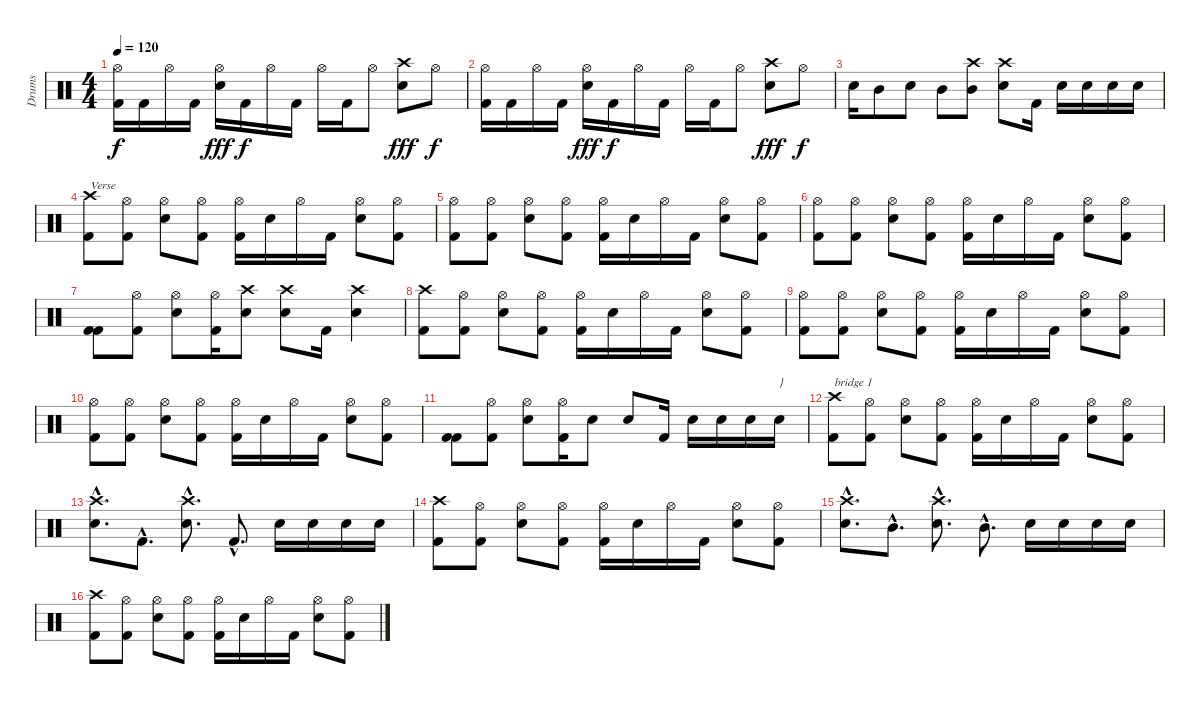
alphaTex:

\track ("Drums" "Drums") {instrument percussion}
\staff {score}
\articulation defaults
\ts (4 4)
\tempo 120
\clef neutral
\ks c
("Hi-Hat (open)" "Kick (hit) 2").16{dy f} "Kick (hit) 2".16 "Hi-Hat (open)".16 "Kick (hit) 2".16 ("Hi-Hat (open)" "Snare (hit) 2").16{dy fff} "Kick (hit) 2".16{dy f} "Hi-Hat (open)".16 "Kick (hit) 2".16 "Hi-Hat (open)".16 "Kick (hit) 2".16 "Hi-Hat (open)".8 ("Snare (hit) 2" "Crash high (hit)").8{dy fff} "Hi-Hat (open)".8{dy f} |
("Hi-Hat (open)" "Kick (hit) 2").16 "Kick (hit) 2".16 "Hi-Hat (open)".16 "Kick (hit) 2".16 ("Hi-Hat (open)" "Snare (hit) 2").16{dy fff} "Kick (hit) 2".16{dy f} "Hi-Hat (open)".16 "Kick (hit) 2".16 "Hi-Hat (open)".16 "Kick (hit) 2".16 "Hi-Hat (open)".8 ("Snare (hit) 2" "Crash high (hit)").8{dy fff} "Hi-Hat (open)".8{dy f} |
"Snare (hit) 2".16 "Mid Tom (hit)".8 "Snare (hit) 2".8 "Mid Tom (hit)".8 ("Crash high (hit)" "Mid Tom (hit)").8 ("Crash high (hit)" "Snare (hit) 2").8 "Kick (hit) 2".16 "Snare (hit) 2".16 "Snare (hit) 2".16 "Snare (hit) 2".16 "Snare (hit) 2".16 |
("Kick (hit) 2" "Crash high (hit)").8{txt "Verse"} ("Hi-Hat (open)" "Kick (hit) 2").8 ("Hi-Hat (open)" "Snare (hit) 2").8 ("Hi-Hat (open)" "Kick (hit) 2").8 ("Hi-Hat (open)" "Kick (hit) 2").16 "Snare (hit) 2".16 "Hi-Hat (open)".16 "Kick (hit) 2".16 ("Hi-Hat (open)" "Snare (hit) 2").8 ("Hi-Hat (open)" "Kick (hit) 2").8 |
("Hi-Hat (open)" "Kick (hit) 2").8 ("Hi-Hat (open)" "Kick (hit) 2").8 ("Hi-Hat (open)" "Snare (hit) 2").8 ("Hi-Hat (open)" "Kick (hit) 2").8 ("Hi-Hat (open)" "Kick (hit) 2").16 "Snare (hit) 2".16 "Hi-Hat (open)".16 "Kick (hit) 2".16 ("Hi-Hat (open)" "Snare (hit) 2").8 ("Hi-Hat (open)" "Kick (hit) 2").8 |
("Hi-Hat (open)" "Kick (hit) 2").8 ("Hi-Hat (open)" "Kick (hit) 2").8 ("Hi-Hat (open)" "Snare (hit) 2").8 ("Hi-Hat (open)" "Kick (hit) 2").8 ("Hi-Hat (open)" "Kick (hit) 2").16 "Snare (hit) 2".16 "Hi-Hat (open)".16 "Kick (hit) 2".16 ("Hi-Hat (open)" "Snare (hit) 2").8 ("Hi-Hat (open)" "Kick (hit) 2").8 |
("Kick (hit) 2" "Kick (hit) 2").8 ("Hi-Hat (open)" "Kick (hit) 2").8 ("Hi-Hat (open)" "Snare (hit) 2").8 ("Hi-Hat (open)" "Kick (hit) 2").16 ("Snare (hit) 2" "Crash high (hit)").8 ("Snare (hit) 2" "Crash high (hit)").8 "Kick (hit) 2".16 ("Snare (hit) 2" "Crash high (hit)").4 |
("Kick (hit) 2" "Crash high (hit)").8 ("Hi-Hat (open)" "Kick (hit) 2").8 ("Hi-Hat (open)" "Snare (hit) 2").8 ("Hi-Hat (open)" "Kick (hit) 2").8 ("Hi-Hat (open)" "Kick (hit) 2").16 "Snare (hit) 2".16 "Hi-Hat (open)".16 "Kick (hit) 2".16 ("Hi-Hat (open)" "Snare (hit) 2").8 ("Hi-Hat (open)" "Kick (hit) 2").8 |
("Hi-Hat (open)" "Kick (hit) 2").8 ("Hi-Hat (open)" "Kick (hit) 2").8 ("Hi-Hat (open)" "Snare (hit) 2").8 ("Hi-Hat (open)" "Kick (hit) 2").8 ("Hi-Hat (open)" "Kick (hit) 2").16 "Snare (hit) 2".16 "Hi-Hat (open)".16 "Kick (hit) 2".16 ("Hi-Hat (open)" "Snare (hit) 2").8 ("Hi-Hat (open)" "Kick (hit) 2").8 |
("Hi-Hat (open)" "Kick (hit) 2").8 ("Hi-Hat (open)" "Kick (hit) 2").8 ("Hi-Hat (open)" "Snare (hit) 2").8 ("Hi-Hat (open)" "Kick (hit) 2").8 ("Hi-Hat (open)" "Kick (hit) 2").16 "Snare (hit) 2".16 "Hi-Hat (open)".16 "Kick (hit) 2".16 ("Hi-Hat (open)" "Snare (hit) 2").8 ("Hi-Hat (open)" "Kick (hit) 2").8 |
("Kick (hit) 2" "Kick (hit) 2").8 ("Hi-Hat (open)" "Kick (hit) 2").8 ("Hi-Hat (open)" "Snare (hit) 2").8 ("Hi-Hat (open)" "Kick (hit) 2").16 "Snare (hit) 2".8 "Snare (hit) 2".8 "Kick (hit) 2".16 "Snare (hit) 2".16 "Snare (hit) 2".16 "Snare (hit) 2".16 "Snare (hit) 2".16{txt "}"} |
("Kick (hit) 2" "Crash high (hit)").8{txt "bridge 1"} ("Hi-Hat (open)" "Kick (hit) 2").8 ("Hi-Hat (open)" "Snare (hit) 2").8 ("Hi-Hat (open)" "Kick (hit) 2").8 ("Hi-Hat (open)" "Kick (hit) 2").16 "Snare (hit) 2".16 "Hi-Hat (open)".16 "Kick (hit) 2".16 ("Hi-Hat (open)" "Snare (hit) 2").8 ("Hi-Hat (open)" "Kick (hit) 2").8 |
("Snare (hit) 2"{hac} "Crash high (hit)"{hac}).8{d} "Kick (hit) 2"{hac}.8{d} ("Snare (hit) 2"{hac} "Crash high (hit)"{hac}).8{d} "Kick (hit) 2"{hac}.8{d} "Snare (hit) 2".16 "Snare (hit) 2".16 "Snare (hit) 2".16 "Snare (hit) 2".16 |
("Kick (hit) 2" "Crash high (hit)").8 ("Hi-Hat (open)" "Kick (hit) 2").8 ("Hi-Hat (open)" "Snare (hit) 2").8 ("Hi-Hat (open)" "Kick (hit) 2").8 ("Hi-Hat (open)" "Kick (hit) 2").16 "Snare (hit) 2".16 "Hi-Hat (open)".16 "Kick (hit) 2".16 ("Hi-Hat (open)" "Snare (hit) 2").8 ("Hi-Hat (open)" "Kick (hit) 2").8 |
("Snare (hit) 2"{hac} "Crash high (hit)"{hac}).8{d} "Mid Tom (hit)"{hac}.8{d} ("Snare (hit) 2"{hac} "Crash high (hit)"{hac}).8{d} "Mid Tom (hit)"{hac}.8{d} "Snare (hit) 2".16 "Snare (hit) 2".16 "Snare (hit) 2".16 "Snare (hit) 2".16 |
("Kick (hit) 2" "Crash high (hit)").8 ("Hi-Hat (open)" "Kick (hit) 2").8 ("Hi-Hat (open)" "Snare (hit) 2").8 ("Hi-Hat (open)" "Kick (hit) 2").8 ("Hi-Hat (open)" "Kick (hit) 2").16 "Snare (hit) 2".16 "Hi-Hat (open)".16 "Kick (hit) 2".16 ("Hi-Hat (open)" "Snare (hit) 2").8 ("Hi-Hat (open)" "Kick (hit) 2").8
